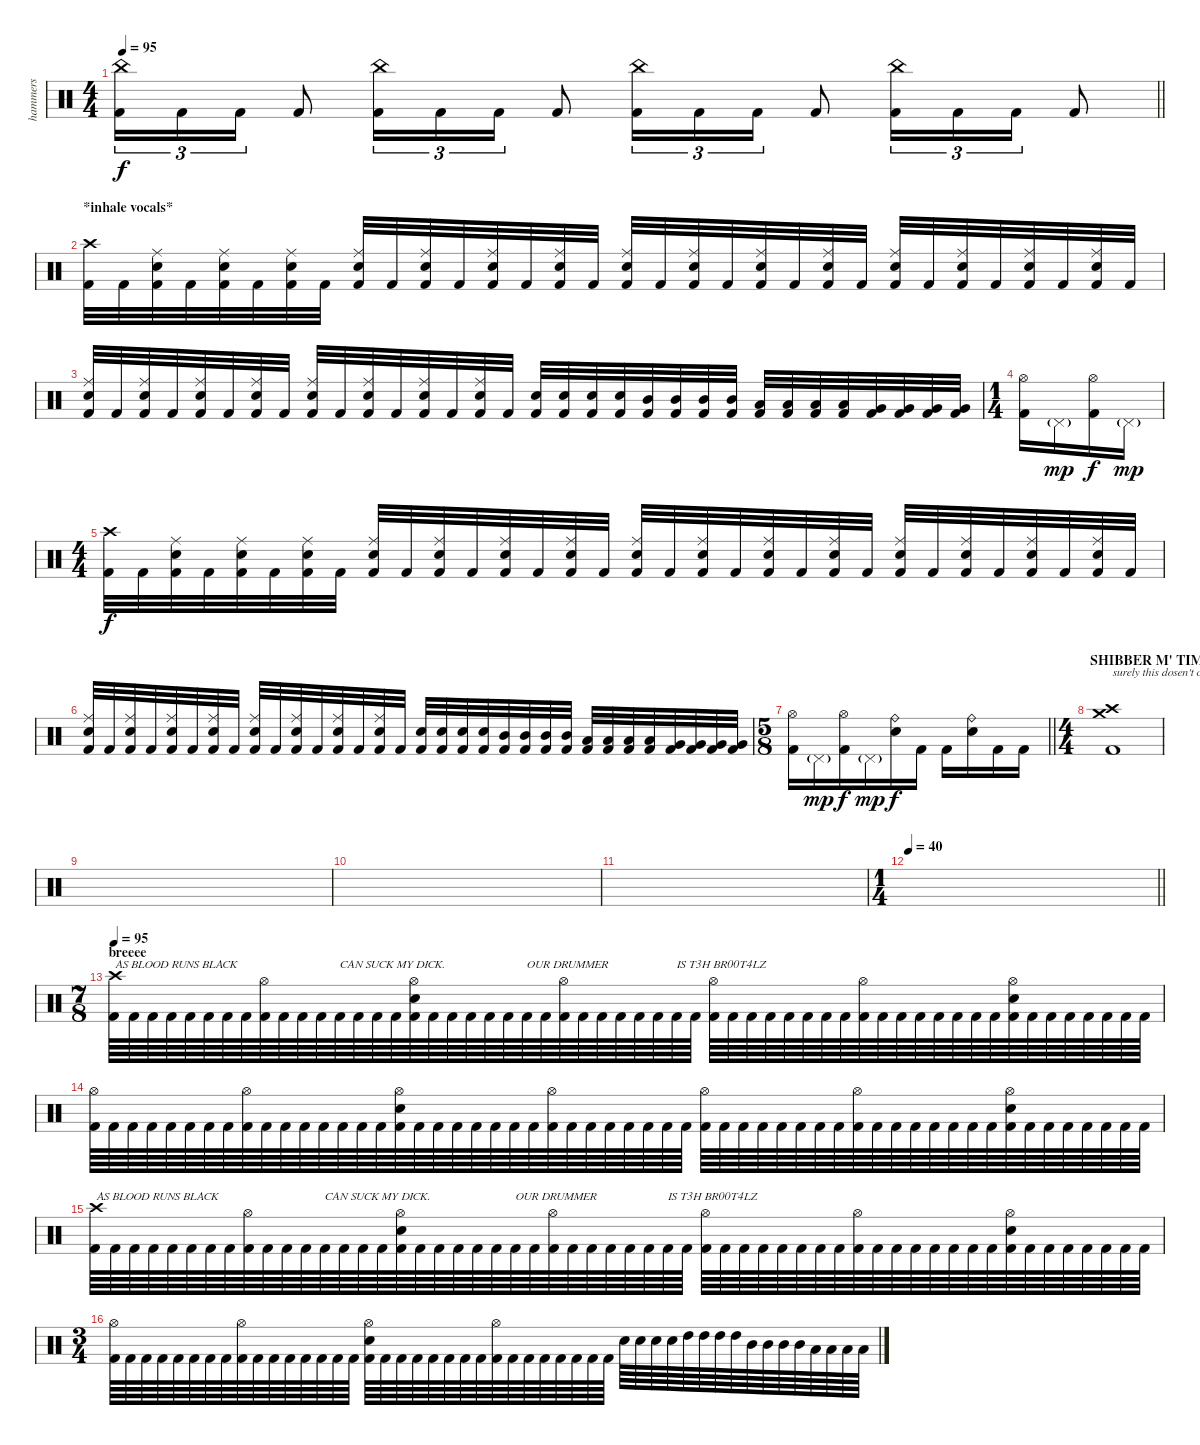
\track ("hammers" "hammers") {instrument percussion}
\staff {score}
\articulation defaults
\ts (4 4)
\tempo 95
\clef neutral
\barLineRight lightlight
\ks c
("China (hit)" "Kick (hit) 2").16{tu (3 2) dy f} "Kick (hit) 2".16{tu (3 2)} "Kick (hit) 2".16{tu (3 2)} "Kick (hit) 2".8 ("China (hit)" "Kick (hit) 2").16{tu (3 2)} "Kick (hit) 2".16{tu (3 2)} "Kick (hit) 2".16{tu (3 2)} "Kick (hit) 2".8 ("China (hit)" "Kick (hit) 2").16{tu (3 2)} "Kick (hit) 2".16{tu (3 2)} "Kick (hit) 2".16{tu (3 2)} "Kick (hit) 2".8 ("China (hit)" "Kick (hit) 2").16{tu (3 2)} "Kick (hit) 2".16{tu (3 2)} "Kick (hit) 2".16{tu (3 2)} "Kick (hit) 2".8 |
\section ("" "*inhale vocals*")
("Crash high (hit)" "Kick (hit) 2").32 "Kick (hit) 2".32 ("Ride (middle)" "Electric Snare (hit)" "Kick (hit) 2").32 "Kick (hit) 2".32 ("Ride (middle)" "Electric Snare (hit)" "Kick (hit) 2").32 "Kick (hit) 2".32 ("Ride (middle)" "Electric Snare (hit)" "Kick (hit) 2").32 "Kick (hit) 2".32 ("Ride (middle)" "Electric Snare (hit)" "Kick (hit) 2").32 "Kick (hit) 2".32 ("Ride (middle)" "Electric Snare (hit)" "Kick (hit) 2").32 "Kick (hit) 2".32 ("Ride (middle)" "Electric Snare (hit)" "Kick (hit) 2").32 "Kick (hit) 2".32 ("Ride (middle)" "Electric Snare (hit)" "Kick (hit) 2").32 "Kick (hit) 2".32 ("Ride (middle)" "Electric Snare (hit)" "Kick (hit) 2").32 "Kick (hit) 2".32 ("Ride (middle)" "Electric Snare (hit)" "Kick (hit) 2").32 "Kick (hit) 2".32 ("Ride (middle)" "Electric Snare (hit)" "Kick (hit) 2").32 "Kick (hit) 2".32 ("Ride (middle)" "Electric Snare (hit)" "Kick (hit) 2").32 "Kick (hit) 2".32 ("Ride (middle)" "Electric Snare (hit)" "Kick (hit) 2").32 "Kick (hit) 2".32 ("Ride (middle)" "Electric Snare (hit)" "Kick (hit) 2").32 "Kick (hit) 2".32 ("Ride (middle)" "Electric Snare (hit)" "Kick (hit) 2").32 "Kick (hit) 2".32 ("Ride (middle)" "Electric Snare (hit)" "Kick (hit) 2").32 "Kick (hit) 2".32 |
("Ride (middle)" "Electric Snare (hit)" "Kick (hit) 2").32 "Kick (hit) 2".32 ("Ride (middle)" "Electric Snare (hit)" "Kick (hit) 2").32 "Kick (hit) 2".32 ("Ride (middle)" "Electric Snare (hit)" "Kick (hit) 2").32 "Kick (hit) 2".32 ("Ride (middle)" "Electric Snare (hit)" "Kick (hit) 2").32 "Kick (hit) 2".32 ("Ride (middle)" "Electric Snare (hit)" "Kick (hit) 2").32 "Kick (hit) 2".32 ("Ride (middle)" "Electric Snare (hit)" "Kick (hit) 2").32 "Kick (hit) 2".32 ("Ride (middle)" "Electric Snare (hit)" "Kick (hit) 2").32 "Kick (hit) 2".32 ("Ride (middle)" "Electric Snare (hit)" "Kick (hit) 2").32 "Kick (hit) 2".32 ("Electric Snare (hit)" "Kick (hit) 2").32 ("Electric Snare (hit)" "Kick (hit) 2").32 ("Electric Snare (hit)" "Kick (hit) 2").32 ("Electric Snare (hit)" "Kick (hit) 2").32 ("Mid Tom (hit)" "Kick (hit) 2").32 ("Mid Tom (hit)" "Kick (hit) 2").32 ("Mid Tom (hit)" "Kick (hit) 2").32 ("Mid Tom (hit)" "Kick (hit) 2").32 ("Low Tom (hit)" "Kick (hit) 2").32 ("Low Tom (hit)" "Kick (hit) 2").32 ("Low Tom (hit)" "Kick (hit) 2").32 ("Low Tom (hit)" "Kick (hit) 2").32 ("Very Low Tom (hit)" "Kick (hit) 2").32 ("Very Low Tom (hit)" "Kick (hit) 2").32 ("Very Low Tom (hit)" "Kick (hit) 2").32 ("Very Low Tom (hit)" "Kick (hit) 2").32 |
\ts (1 4)
("Hi-Hat (open)" "Kick (hit) 2").16 "Pedal Hi-Hat (hit)"{g}.16{dy mp} ("Hi-Hat (open)" "Kick (hit) 2").16{dy f} "Pedal Hi-Hat (hit)"{g}.16{dy mp} |
\ts (4 4)
("Crash high (hit)" "Kick (hit) 2").32{dy f} "Kick (hit) 2".32 ("Ride (middle)" "Electric Snare (hit)" "Kick (hit) 2").32 "Kick (hit) 2".32 ("Ride (middle)" "Electric Snare (hit)" "Kick (hit) 2").32 "Kick (hit) 2".32 ("Ride (middle)" "Electric Snare (hit)" "Kick (hit) 2").32 "Kick (hit) 2".32 ("Ride (middle)" "Electric Snare (hit)" "Kick (hit) 2").32 "Kick (hit) 2".32 ("Ride (middle)" "Electric Snare (hit)" "Kick (hit) 2").32 "Kick (hit) 2".32 ("Ride (middle)" "Electric Snare (hit)" "Kick (hit) 2").32 "Kick (hit) 2".32 ("Ride (middle)" "Electric Snare (hit)" "Kick (hit) 2").32 "Kick (hit) 2".32 ("Ride (middle)" "Electric Snare (hit)" "Kick (hit) 2").32 "Kick (hit) 2".32 ("Ride (middle)" "Electric Snare (hit)" "Kick (hit) 2").32 "Kick (hit) 2".32 ("Ride (middle)" "Electric Snare (hit)" "Kick (hit) 2").32 "Kick (hit) 2".32 ("Ride (middle)" "Electric Snare (hit)" "Kick (hit) 2").32 "Kick (hit) 2".32 ("Ride (middle)" "Electric Snare (hit)" "Kick (hit) 2").32 "Kick (hit) 2".32 ("Ride (middle)" "Electric Snare (hit)" "Kick (hit) 2").32 "Kick (hit) 2".32 ("Ride (middle)" "Electric Snare (hit)" "Kick (hit) 2").32 "Kick (hit) 2".32 ("Ride (middle)" "Electric Snare (hit)" "Kick (hit) 2").32 "Kick (hit) 2".32 |
("Ride (middle)" "Electric Snare (hit)" "Kick (hit) 2").32 "Kick (hit) 2".32 ("Ride (middle)" "Electric Snare (hit)" "Kick (hit) 2").32 "Kick (hit) 2".32 ("Ride (middle)" "Electric Snare (hit)" "Kick (hit) 2").32 "Kick (hit) 2".32 ("Ride (middle)" "Electric Snare (hit)" "Kick (hit) 2").32 "Kick (hit) 2".32 ("Ride (middle)" "Electric Snare (hit)" "Kick (hit) 2").32 "Kick (hit) 2".32 ("Ride (middle)" "Electric Snare (hit)" "Kick (hit) 2").32 "Kick (hit) 2".32 ("Ride (middle)" "Electric Snare (hit)" "Kick (hit) 2").32 "Kick (hit) 2".32 ("Ride (middle)" "Electric Snare (hit)" "Kick (hit) 2").32 "Kick (hit) 2".32 ("Electric Snare (hit)" "Kick (hit) 2").32 ("Electric Snare (hit)" "Kick (hit) 2").32 ("Electric Snare (hit)" "Kick (hit) 2").32 ("Electric Snare (hit)" "Kick (hit) 2").32 ("Mid Tom (hit)" "Kick (hit) 2").32 ("Mid Tom (hit)" "Kick (hit) 2").32 ("Mid Tom (hit)" "Kick (hit) 2").32 ("Mid Tom (hit)" "Kick (hit) 2").32 ("Low Tom (hit)" "Kick (hit) 2").32 ("Low Tom (hit)" "Kick (hit) 2").32 ("Low Tom (hit)" "Kick (hit) 2").32 ("Low Tom (hit)" "Kick (hit) 2").32 ("Very Low Tom (hit)" "Kick (hit) 2").32 ("Very Low Tom (hit)" "Kick (hit) 2").32 ("Very Low Tom (hit)" "Kick (hit) 2").32 ("Very Low Tom (hit)" "Kick (hit) 2").32 |
\ts (5 8)
\barLineRight lightlight
("Hi-Hat (open)" "Kick (hit) 2").16 "Pedal Hi-Hat (hit)"{g}.16{dy mp} ("Hi-Hat (open)" "Kick (hit) 2").16{dy f} "Pedal Hi-Hat (hit)"{g}.16{dy mp} ("Ride (bell)" "Electric Snare (hit)").16{dy f} "Kick (hit) 2".16 "Kick (hit) 2".16 ("Ride (bell)" "Electric Snare (hit)").16 "Kick (hit) 2".16 "Kick (hit) 2".16 |
\ts (4 4)
\section ("" "SHIBBER M' TIMBERS!")
("Crash high (hit)" "Crash medium (hit)" "Kick (hit) 2").1{txt "surely this dosen't count -_-"} |
|
|
|
\ts (1 4)
\tempo 40
\barLineRight lightlight
|
\ts (7 8)
\section ("" "breeee")
\tempo 95
("Crash high (hit)" "Kick (hit) 2").64{txt "AS BLOOD RUNS BLACK"} "Kick (hit) 2".64 "Kick (hit) 2".64 "Kick (hit) 2".64 "Kick (hit) 2".64 "Kick (hit) 2".64 "Kick (hit) 2".64 "Kick (hit) 2".64 ("Hi-Hat (open)" "Kick (hit) 2").64 "Kick (hit) 2".64 "Kick (hit) 2".64 "Kick (hit) 2".64 "Kick (hit) 2".64{txt "CAN SUCK MY DICK."} "Kick (hit) 2".64 "Kick (hit) 2".64 "Kick (hit) 2".64 ("Hi-Hat (open)" "Electric Snare (hit)" "Kick (hit) 2").64 "Kick (hit) 2".64 "Kick (hit) 2".64 "Kick (hit) 2".64 "Kick (hit) 2".64 "Kick (hit) 2".64 "Kick (hit) 2".64{txt "OUR DRUMMER"} "Kick (hit) 2".64 ("Hi-Hat (open)" "Kick (hit) 2").64 "Kick (hit) 2".64 "Kick (hit) 2".64 "Kick (hit) 2".64 "Kick (hit) 2".64 "Kick (hit) 2".64 "Kick (hit) 2".64{txt "IS T3H BR00T4LZ"} "Kick (hit) 2".64 ("Hi-Hat (open)" "Kick (hit) 2").64 "Kick (hit) 2".64 "Kick (hit) 2".64 "Kick (hit) 2".64 "Kick (hit) 2".64 "Kick (hit) 2".64 "Kick (hit) 2".64 "Kick (hit) 2".64 ("Hi-Hat (open)" "Kick (hit) 2").64 "Kick (hit) 2".64 "Kick (hit) 2".64 "Kick (hit) 2".64 "Kick (hit) 2".64 "Kick (hit) 2".64 "Kick (hit) 2".64 "Kick (hit) 2".64 ("Hi-Hat (open)" "Electric Snare (hit)" "Kick (hit) 2").64 "Kick (hit) 2".64 "Kick (hit) 2".64 "Kick (hit) 2".64 "Kick (hit) 2".64 "Kick (hit) 2".64 "Kick (hit) 2".64 "Kick (hit) 2".64 |
("Hi-Hat (open)" "Kick (hit) 2").64 "Kick (hit) 2".64 "Kick (hit) 2".64 "Kick (hit) 2".64 "Kick (hit) 2".64 "Kick (hit) 2".64 "Kick (hit) 2".64 "Kick (hit) 2".64 ("Hi-Hat (open)" "Kick (hit) 2").64 "Kick (hit) 2".64 "Kick (hit) 2".64 "Kick (hit) 2".64 "Kick (hit) 2".64 "Kick (hit) 2".64 "Kick (hit) 2".64 "Kick (hit) 2".64 ("Hi-Hat (open)" "Electric Snare (hit)" "Kick (hit) 2").64 "Kick (hit) 2".64 "Kick (hit) 2".64 "Kick (hit) 2".64 "Kick (hit) 2".64 "Kick (hit) 2".64 "Kick (hit) 2".64 "Kick (hit) 2".64 ("Hi-Hat (open)" "Kick (hit) 2").64 "Kick (hit) 2".64 "Kick (hit) 2".64 "Kick (hit) 2".64 "Kick (hit) 2".64 "Kick (hit) 2".64 "Kick (hit) 2".64 "Kick (hit) 2".64 ("Hi-Hat (open)" "Kick (hit) 2").64 "Kick (hit) 2".64 "Kick (hit) 2".64 "Kick (hit) 2".64 "Kick (hit) 2".64 "Kick (hit) 2".64 "Kick (hit) 2".64 "Kick (hit) 2".64 ("Hi-Hat (open)" "Kick (hit) 2").64 "Kick (hit) 2".64 "Kick (hit) 2".64 "Kick (hit) 2".64 "Kick (hit) 2".64 "Kick (hit) 2".64 "Kick (hit) 2".64 "Kick (hit) 2".64 ("Hi-Hat (open)" "Electric Snare (hit)" "Kick (hit) 2").64 "Kick (hit) 2".64 "Kick (hit) 2".64 "Kick (hit) 2".64 "Kick (hit) 2".64 "Kick (hit) 2".64 "Kick (hit) 2".64 "Kick (hit) 2".64 |
("Crash high (hit)" "Kick (hit) 2").64{txt "AS BLOOD RUNS BLACK"} "Kick (hit) 2".64 "Kick (hit) 2".64 "Kick (hit) 2".64 "Kick (hit) 2".64 "Kick (hit) 2".64 "Kick (hit) 2".64 "Kick (hit) 2".64 ("Hi-Hat (open)" "Kick (hit) 2").64 "Kick (hit) 2".64 "Kick (hit) 2".64 "Kick (hit) 2".64 "Kick (hit) 2".64{txt "CAN SUCK MY DICK."} "Kick (hit) 2".64 "Kick (hit) 2".64 "Kick (hit) 2".64 ("Hi-Hat (open)" "Electric Snare (hit)" "Kick (hit) 2").64 "Kick (hit) 2".64 "Kick (hit) 2".64 "Kick (hit) 2".64 "Kick (hit) 2".64 "Kick (hit) 2".64 "Kick (hit) 2".64{txt "OUR DRUMMER"} "Kick (hit) 2".64 ("Hi-Hat (open)" "Kick (hit) 2").64 "Kick (hit) 2".64 "Kick (hit) 2".64 "Kick (hit) 2".64 "Kick (hit) 2".64 "Kick (hit) 2".64 "Kick (hit) 2".64{txt "IS T3H BR00T4LZ"} "Kick (hit) 2".64 ("Hi-Hat (open)" "Kick (hit) 2").64 "Kick (hit) 2".64 "Kick (hit) 2".64 "Kick (hit) 2".64 "Kick (hit) 2".64 "Kick (hit) 2".64 "Kick (hit) 2".64 "Kick (hit) 2".64 ("Hi-Hat (open)" "Kick (hit) 2").64 "Kick (hit) 2".64 "Kick (hit) 2".64 "Kick (hit) 2".64 "Kick (hit) 2".64 "Kick (hit) 2".64 "Kick (hit) 2".64 "Kick (hit) 2".64 ("Hi-Hat (open)" "Electric Snare (hit)" "Kick (hit) 2").64 "Kick (hit) 2".64 "Kick (hit) 2".64 "Kick (hit) 2".64 "Kick (hit) 2".64 "Kick (hit) 2".64 "Kick (hit) 2".64 "Kick (hit) 2".64 |
\ts (3 4)
("Hi-Hat (open)" "Kick (hit) 2").64 "Kick (hit) 2".64 "Kick (hit) 2".64 "Kick (hit) 2".64 "Kick (hit) 2".64 "Kick (hit) 2".64 "Kick (hit) 2".64 "Kick (hit) 2".64 ("Hi-Hat (open)" "Kick (hit) 2").64 "Kick (hit) 2".64 "Kick (hit) 2".64 "Kick (hit) 2".64 "Kick (hit) 2".64 "Kick (hit) 2".64 "Kick (hit) 2".64 "Kick (hit) 2".64 ("Hi-Hat (open)" "Electric Snare (hit)" "Kick (hit) 2").64 "Kick (hit) 2".64 "Kick (hit) 2".64 "Kick (hit) 2".64 "Kick (hit) 2".64 "Kick (hit) 2".64 "Kick (hit) 2".64 "Kick (hit) 2".64 ("Hi-Hat (open)" "Kick (hit) 2").64 "Kick (hit) 2".64 "Kick (hit) 2".64 "Kick (hit) 2".64 "Kick (hit) 2".64 "Kick (hit) 2".64 "Kick (hit) 2".64 "Kick (hit) 2".64 "Electric Snare (hit)".64 "Electric Snare (hit)".64 "Electric Snare (hit)".64 "Electric Snare (hit)".64 "High Tom (hit)".64 "High Tom (hit)".64 "High Tom (hit)".64 "High Tom (hit)".64 "Mid Tom (hit)".64 "Mid Tom (hit)".64 "Mid Tom (hit)".64 "Mid Tom (hit)".64 "Low Tom (hit)".64 "Low Tom (hit)".64 "Low Tom (hit)".64 "Low Tom (hit)".64
